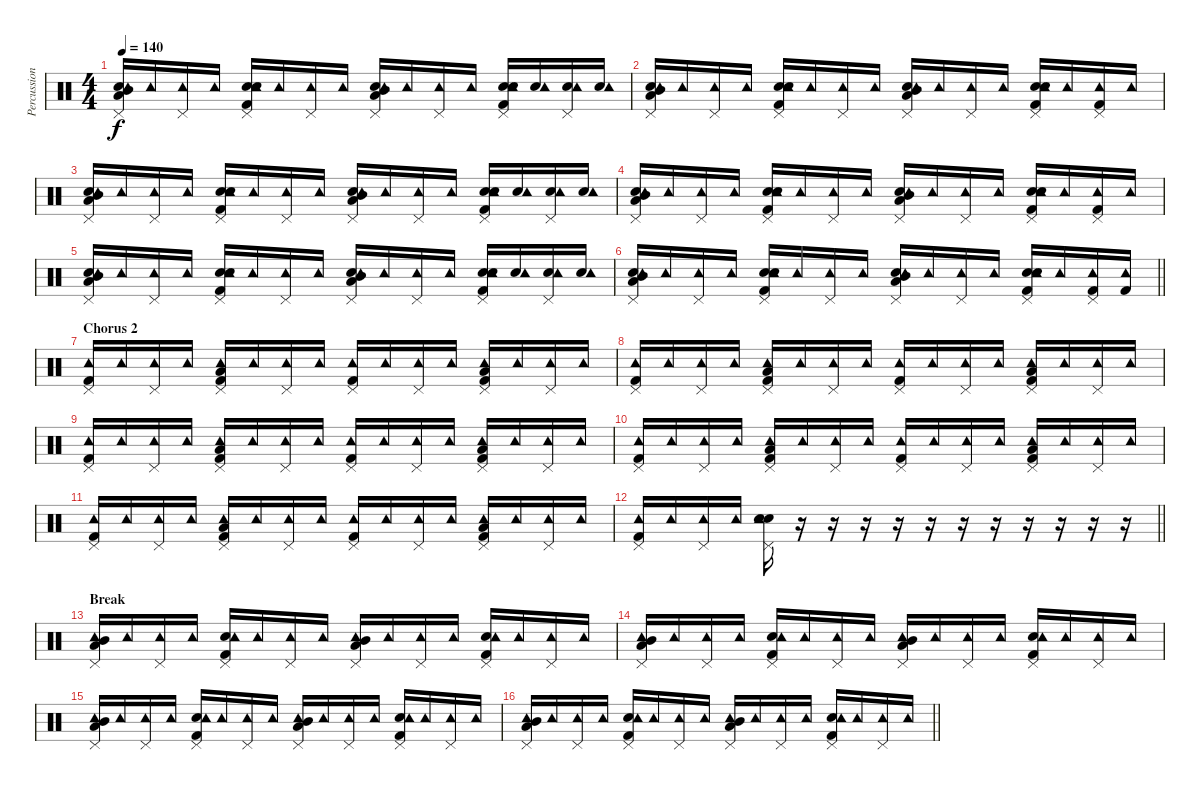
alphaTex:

\track ("Percussion" "Percussion") {instrument percussion}
\staff {score}
\articulation defaults
\ts (4 4)
\tempo 140
\clef neutral
\ks c
("Low Tom (hit)" "Mid Tom (hit)" "Electric Snare (hit)" "Pedal Hi-Hat (hit)" "Tambourine (hit)").16{dy f} "Tambourine (hit)".16 ("Pedal Hi-Hat (hit)" "Tambourine (hit)").16 "Tambourine (hit)".16 ("Snare (hit) 2" "Kick (hit) 2" "Electric Snare (hit)" "Pedal Hi-Hat (hit)" "Tambourine (hit)").16 "Tambourine (hit)".16 ("Pedal Hi-Hat (hit)" "Tambourine (hit)").16 "Tambourine (hit)".16 ("Low Tom (hit)" "Mid Tom (hit)" "Electric Snare (hit)" "Pedal Hi-Hat (hit)" "Tambourine (hit)").16 "Tambourine (hit)".16 ("Pedal Hi-Hat (hit)" "Tambourine (hit)").16 "Tambourine (hit)".16 ("Snare (hit) 2" "Kick (hit) 2" "Electric Snare (hit)" "Pedal Hi-Hat (hit)" "Tambourine (hit)").16 ("Electric Snare (hit)" "Tambourine (hit)").16 ("Electric Snare (hit)" "Pedal Hi-Hat (hit)" "Tambourine (hit)").16 ("Electric Snare (hit)" "Tambourine (hit)").16 |
("Low Tom (hit)" "Mid Tom (hit)" "Electric Snare (hit)" "Pedal Hi-Hat (hit)" "Tambourine (hit)").16 "Tambourine (hit)".16 ("Pedal Hi-Hat (hit)" "Tambourine (hit)").16 "Tambourine (hit)".16 ("Snare (hit) 2" "Kick (hit) 2" "Electric Snare (hit)" "Pedal Hi-Hat (hit)" "Tambourine (hit)").16 "Tambourine (hit)".16 ("Pedal Hi-Hat (hit)" "Tambourine (hit)").16 "Tambourine (hit)".16 ("Low Tom (hit)" "Mid Tom (hit)" "Electric Snare (hit)" "Pedal Hi-Hat (hit)" "Tambourine (hit)").16 "Tambourine (hit)".16 ("Pedal Hi-Hat (hit)" "Tambourine (hit)").16 "Tambourine (hit)".16 ("Snare (hit) 2" "Kick (hit) 2" "Electric Snare (hit)" "Pedal Hi-Hat (hit)" "Tambourine (hit)").16 "Tambourine (hit)".16 ("Kick (hit) 2" "Pedal Hi-Hat (hit)" "Tambourine (hit)").16 "Tambourine (hit)".16 |
("Low Tom (hit)" "Mid Tom (hit)" "Electric Snare (hit)" "Pedal Hi-Hat (hit)" "Tambourine (hit)").16 "Tambourine (hit)".16 ("Pedal Hi-Hat (hit)" "Tambourine (hit)").16 "Tambourine (hit)".16 ("Snare (hit) 2" "Kick (hit) 2" "Electric Snare (hit)" "Pedal Hi-Hat (hit)" "Tambourine (hit)").16 "Tambourine (hit)".16 ("Pedal Hi-Hat (hit)" "Tambourine (hit)").16 "Tambourine (hit)".16 ("Low Tom (hit)" "Mid Tom (hit)" "Electric Snare (hit)" "Pedal Hi-Hat (hit)" "Tambourine (hit)").16 "Tambourine (hit)".16 ("Pedal Hi-Hat (hit)" "Tambourine (hit)").16 "Tambourine (hit)".16 ("Snare (hit) 2" "Kick (hit) 2" "Electric Snare (hit)" "Pedal Hi-Hat (hit)" "Tambourine (hit)").16 ("Electric Snare (hit)" "Tambourine (hit)").16 ("Electric Snare (hit)" "Pedal Hi-Hat (hit)" "Tambourine (hit)").16 ("Electric Snare (hit)" "Tambourine (hit)").16 |
("Low Tom (hit)" "Mid Tom (hit)" "Electric Snare (hit)" "Pedal Hi-Hat (hit)" "Tambourine (hit)").16 "Tambourine (hit)".16 ("Pedal Hi-Hat (hit)" "Tambourine (hit)").16 "Tambourine (hit)".16 ("Snare (hit) 2" "Kick (hit) 2" "Electric Snare (hit)" "Pedal Hi-Hat (hit)" "Tambourine (hit)").16 "Tambourine (hit)".16 ("Pedal Hi-Hat (hit)" "Tambourine (hit)").16 "Tambourine (hit)".16 ("Low Tom (hit)" "Mid Tom (hit)" "Electric Snare (hit)" "Pedal Hi-Hat (hit)" "Tambourine (hit)").16 "Tambourine (hit)".16 ("Pedal Hi-Hat (hit)" "Tambourine (hit)").16 "Tambourine (hit)".16 ("Snare (hit) 2" "Kick (hit) 2" "Electric Snare (hit)" "Pedal Hi-Hat (hit)" "Tambourine (hit)").16 "Tambourine (hit)".16 ("Kick (hit) 2" "Pedal Hi-Hat (hit)" "Tambourine (hit)").16 "Tambourine (hit)".16 |
("Low Tom (hit)" "Mid Tom (hit)" "Electric Snare (hit)" "Pedal Hi-Hat (hit)" "Tambourine (hit)").16 "Tambourine (hit)".16 ("Pedal Hi-Hat (hit)" "Tambourine (hit)").16 "Tambourine (hit)".16 ("Snare (hit) 2" "Kick (hit) 2" "Electric Snare (hit)" "Pedal Hi-Hat (hit)" "Tambourine (hit)").16 "Tambourine (hit)".16 ("Pedal Hi-Hat (hit)" "Tambourine (hit)").16 "Tambourine (hit)".16 ("Low Tom (hit)" "Mid Tom (hit)" "Electric Snare (hit)" "Pedal Hi-Hat (hit)" "Tambourine (hit)").16 "Tambourine (hit)".16 ("Pedal Hi-Hat (hit)" "Tambourine (hit)").16 "Tambourine (hit)".16 ("Snare (hit) 2" "Kick (hit) 2" "Electric Snare (hit)" "Pedal Hi-Hat (hit)" "Tambourine (hit)").16 ("Electric Snare (hit)" "Tambourine (hit)").16 ("Electric Snare (hit)" "Pedal Hi-Hat (hit)" "Tambourine (hit)").16 ("Electric Snare (hit)" "Tambourine (hit)").16 |
\barLineRight lightlight
("Low Tom (hit)" "Mid Tom (hit)" "Electric Snare (hit)" "Pedal Hi-Hat (hit)" "Tambourine (hit)").16 "Tambourine (hit)".16 ("Pedal Hi-Hat (hit)" "Tambourine (hit)").16 "Tambourine (hit)".16 ("Snare (hit) 2" "Kick (hit) 2" "Electric Snare (hit)" "Pedal Hi-Hat (hit)" "Tambourine (hit)").16 "Tambourine (hit)".16 ("Pedal Hi-Hat (hit)" "Tambourine (hit)").16 "Tambourine (hit)".16 ("Low Tom (hit)" "Mid Tom (hit)" "Electric Snare (hit)" "Pedal Hi-Hat (hit)" "Tambourine (hit)").16 "Tambourine (hit)".16 ("Pedal Hi-Hat (hit)" "Tambourine (hit)").16 "Tambourine (hit)".16 ("Snare (hit) 2" "Kick (hit) 2" "Electric Snare (hit)" "Pedal Hi-Hat (hit)" "Tambourine (hit)").16 "Tambourine (hit)".16 ("Kick (hit) 2" "Pedal Hi-Hat (hit)" "Tambourine (hit)").16 ("Kick (hit) 2" "Tambourine (hit)").16 |
\section ("" "Chorus 2")
("Kick (hit) 2" "Pedal Hi-Hat (hit)" "Tambourine (hit)").16 "Tambourine (hit)".16 ("Pedal Hi-Hat (hit)" "Tambourine (hit)").16 "Tambourine (hit)".16 ("Low Tom (hit)" "Kick (hit) 2" "Pedal Hi-Hat (hit)" "Tambourine (hit)").16 "Tambourine (hit)".16 ("Pedal Hi-Hat (hit)" "Tambourine (hit)").16 "Tambourine (hit)".16 ("Kick (hit) 2" "Pedal Hi-Hat (hit)" "Tambourine (hit)").16 "Tambourine (hit)".16 ("Pedal Hi-Hat (hit)" "Tambourine (hit)").16 "Tambourine (hit)".16 ("Low Tom (hit)" "Kick (hit) 2" "Pedal Hi-Hat (hit)" "Tambourine (hit)").16 "Tambourine (hit)".16 ("Pedal Hi-Hat (hit)" "Tambourine (hit)").16 "Tambourine (hit)".16 |
("Kick (hit) 2" "Pedal Hi-Hat (hit)" "Tambourine (hit)").16 "Tambourine (hit)".16 ("Pedal Hi-Hat (hit)" "Tambourine (hit)").16 "Tambourine (hit)".16 ("Low Tom (hit)" "Kick (hit) 2" "Pedal Hi-Hat (hit)" "Tambourine (hit)").16 "Tambourine (hit)".16 ("Pedal Hi-Hat (hit)" "Tambourine (hit)").16 "Tambourine (hit)".16 ("Kick (hit) 2" "Pedal Hi-Hat (hit)" "Tambourine (hit)").16 "Tambourine (hit)".16 ("Pedal Hi-Hat (hit)" "Tambourine (hit)").16 "Tambourine (hit)".16 ("Low Tom (hit)" "Kick (hit) 2" "Pedal Hi-Hat (hit)" "Tambourine (hit)").16 "Tambourine (hit)".16 ("Pedal Hi-Hat (hit)" "Tambourine (hit)").16 "Tambourine (hit)".16 |
("Kick (hit) 2" "Pedal Hi-Hat (hit)" "Tambourine (hit)").16 "Tambourine (hit)".16 ("Pedal Hi-Hat (hit)" "Tambourine (hit)").16 "Tambourine (hit)".16 ("Low Tom (hit)" "Kick (hit) 2" "Pedal Hi-Hat (hit)" "Tambourine (hit)").16 "Tambourine (hit)".16 ("Pedal Hi-Hat (hit)" "Tambourine (hit)").16 "Tambourine (hit)".16 ("Kick (hit) 2" "Pedal Hi-Hat (hit)" "Tambourine (hit)").16 "Tambourine (hit)".16 ("Pedal Hi-Hat (hit)" "Tambourine (hit)").16 "Tambourine (hit)".16 ("Low Tom (hit)" "Kick (hit) 2" "Pedal Hi-Hat (hit)" "Tambourine (hit)").16 "Tambourine (hit)".16 ("Pedal Hi-Hat (hit)" "Tambourine (hit)").16 "Tambourine (hit)".16 |
("Kick (hit) 2" "Pedal Hi-Hat (hit)" "Tambourine (hit)").16 "Tambourine (hit)".16 ("Pedal Hi-Hat (hit)" "Tambourine (hit)").16 "Tambourine (hit)".16 ("Low Tom (hit)" "Kick (hit) 2" "Pedal Hi-Hat (hit)" "Tambourine (hit)").16 "Tambourine (hit)".16 ("Pedal Hi-Hat (hit)" "Tambourine (hit)").16 "Tambourine (hit)".16 ("Kick (hit) 2" "Pedal Hi-Hat (hit)" "Tambourine (hit)").16 "Tambourine (hit)".16 ("Pedal Hi-Hat (hit)" "Tambourine (hit)").16 "Tambourine (hit)".16 ("Low Tom (hit)" "Kick (hit) 2" "Pedal Hi-Hat (hit)" "Tambourine (hit)").16 "Tambourine (hit)".16 ("Pedal Hi-Hat (hit)" "Tambourine (hit)").16 "Tambourine (hit)".16 |
("Kick (hit) 2" "Pedal Hi-Hat (hit)" "Tambourine (hit)").16 "Tambourine (hit)".16 ("Pedal Hi-Hat (hit)" "Tambourine (hit)").16 "Tambourine (hit)".16 ("Low Tom (hit)" "Kick (hit) 2" "Pedal Hi-Hat (hit)" "Tambourine (hit)").16 "Tambourine (hit)".16 ("Pedal Hi-Hat (hit)" "Tambourine (hit)").16 "Tambourine (hit)".16 ("Kick (hit) 2" "Pedal Hi-Hat (hit)" "Tambourine (hit)").16 "Tambourine (hit)".16 ("Pedal Hi-Hat (hit)" "Tambourine (hit)").16 "Tambourine (hit)".16 ("Low Tom (hit)" "Kick (hit) 2" "Pedal Hi-Hat (hit)" "Tambourine (hit)").16 "Tambourine (hit)".16 ("Pedal Hi-Hat (hit)" "Tambourine (hit)").16 "Tambourine (hit)".16 |
\barLineRight lightlight
("Kick (hit) 2" "Pedal Hi-Hat (hit)" "Tambourine (hit)").16 "Tambourine (hit)".16 ("Pedal Hi-Hat (hit)" "Tambourine (hit)").16 "Tambourine (hit)".16 ("Electric Snare (hit)" "Electric Snare (hit)" "Pedal Hi-Hat (hit)" "Tambourine (hit)").16 r.16 r.16 r.16 r.16 r.16 r.16 r.16 r.16 r.16 r.16 r.16 |
\section ("" "Break")
("Low Tom (hit)" "Mid Tom (hit)" "Pedal Hi-Hat (hit)" "Tambourine (hit)").16 "Tambourine (hit)".16 ("Pedal Hi-Hat (hit)" "Tambourine (hit)").16 "Tambourine (hit)".16 ("Snare (hit) 2" "Kick (hit) 2" "Pedal Hi-Hat (hit)" "Tambourine (hit)").16 "Tambourine (hit)".16 ("Pedal Hi-Hat (hit)" "Tambourine (hit)").16 "Tambourine (hit)".16 ("Low Tom (hit)" "Mid Tom (hit)" "Pedal Hi-Hat (hit)" "Tambourine (hit)").16 "Tambourine (hit)".16 ("Pedal Hi-Hat (hit)" "Tambourine (hit)").16 "Tambourine (hit)".16 ("Snare (hit) 2" "Kick (hit) 2" "Pedal Hi-Hat (hit)" "Tambourine (hit)").16 "Tambourine (hit)".16 ("Pedal Hi-Hat (hit)" "Tambourine (hit)").16 "Tambourine (hit)".16 |
("Low Tom (hit)" "Mid Tom (hit)" "Pedal Hi-Hat (hit)" "Tambourine (hit)").16 "Tambourine (hit)".16 ("Pedal Hi-Hat (hit)" "Tambourine (hit)").16 "Tambourine (hit)".16 ("Snare (hit) 2" "Kick (hit) 2" "Pedal Hi-Hat (hit)" "Tambourine (hit)").16 "Tambourine (hit)".16 ("Pedal Hi-Hat (hit)" "Tambourine (hit)").16 "Tambourine (hit)".16 ("Low Tom (hit)" "Mid Tom (hit)" "Pedal Hi-Hat (hit)" "Tambourine (hit)").16 "Tambourine (hit)".16 ("Pedal Hi-Hat (hit)" "Tambourine (hit)").16 "Tambourine (hit)".16 ("Snare (hit) 2" "Kick (hit) 2" "Pedal Hi-Hat (hit)" "Tambourine (hit)").16 "Tambourine (hit)".16 ("Pedal Hi-Hat (hit)" "Tambourine (hit)").16 "Tambourine (hit)".16 |
("Low Tom (hit)" "Mid Tom (hit)" "Pedal Hi-Hat (hit)" "Tambourine (hit)").16 "Tambourine (hit)".16 ("Pedal Hi-Hat (hit)" "Tambourine (hit)").16 "Tambourine (hit)".16 ("Snare (hit) 2" "Kick (hit) 2" "Pedal Hi-Hat (hit)" "Tambourine (hit)").16 "Tambourine (hit)".16 ("Pedal Hi-Hat (hit)" "Tambourine (hit)").16 "Tambourine (hit)".16 ("Low Tom (hit)" "Mid Tom (hit)" "Pedal Hi-Hat (hit)" "Tambourine (hit)").16 "Tambourine (hit)".16 ("Pedal Hi-Hat (hit)" "Tambourine (hit)").16 "Tambourine (hit)".16 ("Snare (hit) 2" "Kick (hit) 2" "Pedal Hi-Hat (hit)" "Tambourine (hit)").16 "Tambourine (hit)".16 ("Pedal Hi-Hat (hit)" "Tambourine (hit)").16 "Tambourine (hit)".16 |
\barLineRight lightlight
("Low Tom (hit)" "Mid Tom (hit)" "Pedal Hi-Hat (hit)" "Tambourine (hit)").16 "Tambourine (hit)".16 ("Pedal Hi-Hat (hit)" "Tambourine (hit)").16 "Tambourine (hit)".16 ("Snare (hit) 2" "Kick (hit) 2" "Pedal Hi-Hat (hit)" "Tambourine (hit)").16 "Tambourine (hit)".16 ("Pedal Hi-Hat (hit)" "Tambourine (hit)").16 "Tambourine (hit)".16 ("Low Tom (hit)" "Mid Tom (hit)" "Pedal Hi-Hat (hit)" "Tambourine (hit)").16 "Tambourine (hit)".16 ("Pedal Hi-Hat (hit)" "Tambourine (hit)").16 "Tambourine (hit)".16 ("Snare (hit) 2" "Kick (hit) 2" "Pedal Hi-Hat (hit)" "Tambourine (hit)").16 "Tambourine (hit)".16 ("Pedal Hi-Hat (hit)" "Tambourine (hit)").16 "Tambourine (hit)".16
